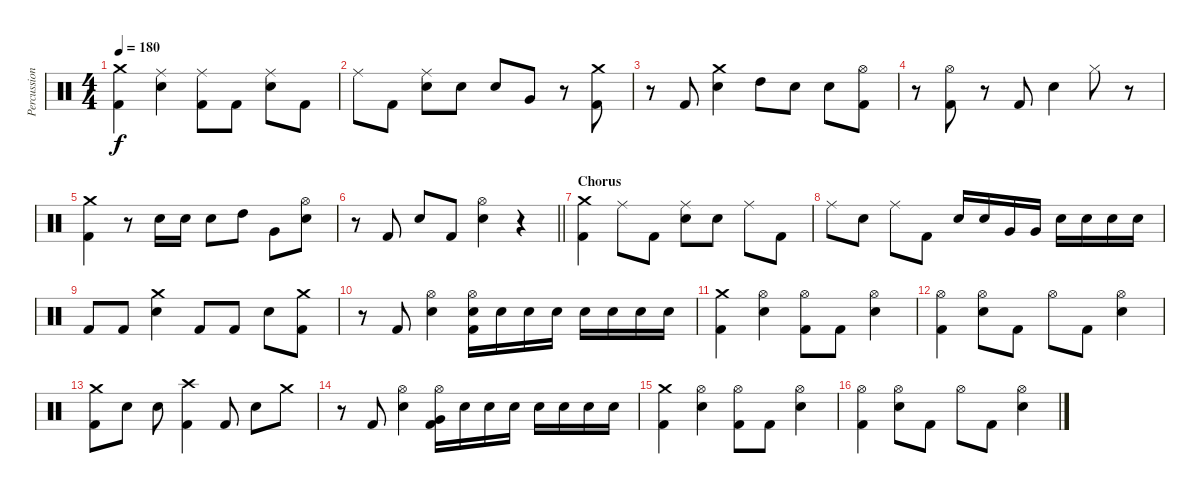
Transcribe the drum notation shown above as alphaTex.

\track ("Percussion" "Percussion") {instrument percussion}
\staff {score}
\articulation defaults
\ts (4 4)
\tempo 180
\clef neutral
\ks c
("Crash medium (hit)" "Kick (hit) 2").4{dy f} ("Ride (middle)" "Snare (hit) 2").4 ("Ride (middle)" "Kick (hit) 2").8 "Kick (hit) 2".8 ("Ride (middle)" "Snare (hit) 2").8 "Kick (hit) 2".8 |
"Ride (middle)".8 "Kick (hit) 2".8 ("Ride (middle)" "Snare (hit) 2").8 "Snare (hit) 2".8 "Snare (hit) 2".8 "Very Low Tom (hit)".8 r.8 ("Crash medium (hit)" "Kick (hit) 2").8 |
r.8 "Kick (hit) 2".8 ("Crash medium (hit)" "Snare (hit) 2").4 "High Tom (hit)".8 "Snare (hit) 2".8 "Snare (hit) 2".8 ("Hi-Hat (open)" "Kick (hit) 2").8 |
r.8 ("Hi-Hat (open)" "Kick (hit) 2").8 r.8 "Kick (hit) 2".8 "Snare (hit) 2".4 "Hi-Hat (closed)".8 r.8 |
("Crash medium (hit)" "Kick (hit) 2").4 r.8 "Snare (hit) 2".16 "Snare (hit) 2".16 "Snare (hit) 2".8 "High Tom (hit)".8 "Very Low Tom (hit)".8 ("Hi-Hat (open)" "Snare (hit) 2").8 |
\barLineRight lightlight
r.8 "Kick (hit) 2".8 "Snare (hit) 2".8 "Kick (hit) 2".8 ("Hi-Hat (open)" "Snare (hit) 2").4 r.4 |
\section ("" "Chorus")
("Crash medium (hit)" "Kick (hit) 2").4 "Ride (middle)".8 "Kick (hit) 2".8 ("Ride (middle)" "Snare (hit) 2").8 "Snare (hit) 2".8 "Ride (middle)".8 "Kick (hit) 2".8 |
"Ride (middle)".8 "Snare (hit) 2".8 "Ride (middle)".8 "Kick (hit) 2".8 "Snare (hit) 2".16 "Snare (hit) 2".16 "Very Low Tom (hit)".16 "Very Low Tom (hit)".16 "Snare (hit) 2".16 "Snare (hit) 2".16 "Snare (hit) 2".16 "Snare (hit) 2".16 |
"Kick (hit) 2".8 "Kick (hit) 2".8 ("Crash medium (hit)" "Snare (hit) 2").4 "Kick (hit) 2".8 "Kick (hit) 2".8 "Snare (hit) 2".8 ("Crash medium (hit)" "Kick (hit) 2").8 |
r.8 "Kick (hit) 2".8 ("Hi-Hat (open)" "Snare (hit) 2").4 ("Hi-Hat (open)" "Snare (hit) 2" "Kick (hit) 2").16 "Snare (hit) 2".16 "Snare (hit) 2".16 "Snare (hit) 2".16 "Snare (hit) 2".16 "Snare (hit) 2".16 "Snare (hit) 2".16 "Snare (hit) 2".16 |
("Crash medium (hit)" "Kick (hit) 2").4 ("Hi-Hat (open)" "Snare (hit) 2").4 ("Hi-Hat (open)" "Kick (hit) 2").8 "Kick (hit) 2".8 ("Hi-Hat (open)" "Snare (hit) 2").4 |
("Hi-Hat (open)" "Kick (hit) 2").4 ("Hi-Hat (open)" "Snare (hit) 2").8 "Kick (hit) 2".8 "Hi-Hat (open)".8 "Kick (hit) 2".8 ("Hi-Hat (open)" "Snare (hit) 2").4 |
("Crash medium (hit)" "Kick (hit) 2").8 "Snare (hit) 2".8 "Snare (hit) 2".8 ("Crash high (hit)" "Kick (hit) 2").4 "Kick (hit) 2".8 "Snare (hit) 2".8 "Crash medium (hit)".8 |
r.8 "Kick (hit) 2".8 ("Hi-Hat (open)" "Snare (hit) 2").4 ("Hi-Hat (open)" "Very Low Tom (hit)" "Kick (hit) 2").16 "Snare (hit) 2".16 "Snare (hit) 2".16 "Snare (hit) 2".16 "Snare (hit) 2".16 "Snare (hit) 2".16 "Snare (hit) 2".16 "Snare (hit) 2".16 |
("Crash medium (hit)" "Kick (hit) 2").4 ("Hi-Hat (open)" "Snare (hit) 2").4 ("Hi-Hat (open)" "Kick (hit) 2").8 "Kick (hit) 2".8 ("Hi-Hat (open)" "Snare (hit) 2").4 |
("Hi-Hat (open)" "Kick (hit) 2").4 ("Hi-Hat (open)" "Snare (hit) 2").8 "Kick (hit) 2".8 "Hi-Hat (open)".8 "Kick (hit) 2".8 ("Hi-Hat (open)" "Snare (hit) 2").4
